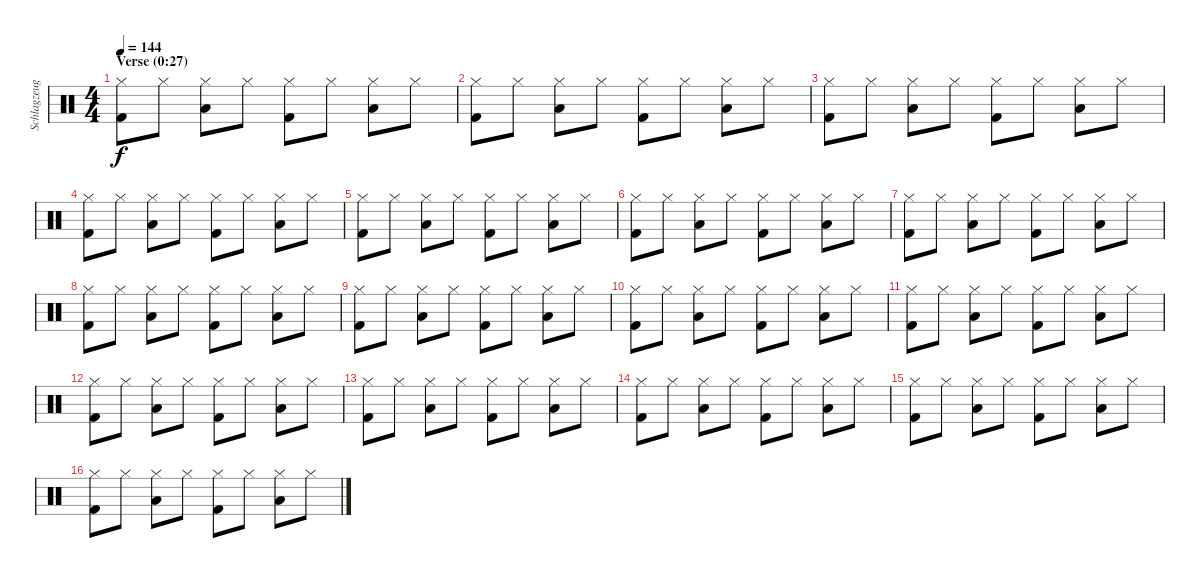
\track ("Schlagzeug" "Schlagzeug") {instrument percussion}
\staff {score}
\articulation defaults
\ts (4 4)
\section ("" "Verse (0:27)")
\tempo 144
\clef neutral
\ks c
("Hi-Hat (closed)" "Kick (hit) 2").8{dy f} "Hi-Hat (closed)".8 ("Hi-Hat (closed)" "Low Tom (hit)").8 "Hi-Hat (closed)".8 ("Hi-Hat (closed)" "Kick (hit) 2").8 "Hi-Hat (closed)".8 ("Hi-Hat (closed)" "Low Tom (hit)").8 "Hi-Hat (closed)".8 |
("Hi-Hat (closed)" "Kick (hit) 2").8 "Hi-Hat (closed)".8 ("Hi-Hat (closed)" "Low Tom (hit)").8 "Hi-Hat (closed)".8 ("Hi-Hat (closed)" "Kick (hit) 2").8 "Hi-Hat (closed)".8 ("Hi-Hat (closed)" "Low Tom (hit)").8 "Hi-Hat (closed)".8 |
("Hi-Hat (closed)" "Kick (hit) 2").8 "Hi-Hat (closed)".8 ("Hi-Hat (closed)" "Low Tom (hit)").8 "Hi-Hat (closed)".8 ("Hi-Hat (closed)" "Kick (hit) 2").8 "Hi-Hat (closed)".8 ("Hi-Hat (closed)" "Low Tom (hit)").8 "Hi-Hat (closed)".8 |
("Hi-Hat (closed)" "Kick (hit) 2").8 "Hi-Hat (closed)".8 ("Hi-Hat (closed)" "Low Tom (hit)").8 "Hi-Hat (closed)".8 ("Hi-Hat (closed)" "Kick (hit) 2").8 "Hi-Hat (closed)".8 ("Hi-Hat (closed)" "Low Tom (hit)").8 "Hi-Hat (closed)".8 |
("Hi-Hat (closed)" "Kick (hit) 2").8 "Hi-Hat (closed)".8 ("Hi-Hat (closed)" "Low Tom (hit)").8 "Hi-Hat (closed)".8 ("Hi-Hat (closed)" "Kick (hit) 2").8 "Hi-Hat (closed)".8 ("Hi-Hat (closed)" "Low Tom (hit)").8 "Hi-Hat (closed)".8 |
("Hi-Hat (closed)" "Kick (hit) 2").8 "Hi-Hat (closed)".8 ("Hi-Hat (closed)" "Low Tom (hit)").8 "Hi-Hat (closed)".8 ("Hi-Hat (closed)" "Kick (hit) 2").8 "Hi-Hat (closed)".8 ("Hi-Hat (closed)" "Low Tom (hit)").8 "Hi-Hat (closed)".8 |
("Hi-Hat (closed)" "Kick (hit) 2").8 "Hi-Hat (closed)".8 ("Hi-Hat (closed)" "Low Tom (hit)").8 "Hi-Hat (closed)".8 ("Hi-Hat (closed)" "Kick (hit) 2").8 "Hi-Hat (closed)".8 ("Hi-Hat (closed)" "Low Tom (hit)").8 "Hi-Hat (closed)".8 |
("Hi-Hat (closed)" "Kick (hit) 2").8 "Hi-Hat (closed)".8 ("Hi-Hat (closed)" "Low Tom (hit)").8 "Hi-Hat (closed)".8 ("Hi-Hat (closed)" "Kick (hit) 2").8 "Hi-Hat (closed)".8 ("Hi-Hat (closed)" "Low Tom (hit)").8 "Hi-Hat (closed)".8 |
("Hi-Hat (closed)" "Kick (hit) 2").8 "Hi-Hat (closed)".8 ("Hi-Hat (closed)" "Low Tom (hit)").8 "Hi-Hat (closed)".8 ("Hi-Hat (closed)" "Kick (hit) 2").8 "Hi-Hat (closed)".8 ("Hi-Hat (closed)" "Low Tom (hit)").8 "Hi-Hat (closed)".8 |
("Hi-Hat (closed)" "Kick (hit) 2").8 "Hi-Hat (closed)".8 ("Hi-Hat (closed)" "Low Tom (hit)").8 "Hi-Hat (closed)".8 ("Hi-Hat (closed)" "Kick (hit) 2").8 "Hi-Hat (closed)".8 ("Hi-Hat (closed)" "Low Tom (hit)").8 "Hi-Hat (closed)".8 |
("Hi-Hat (closed)" "Kick (hit) 2").8 "Hi-Hat (closed)".8 ("Hi-Hat (closed)" "Low Tom (hit)").8 "Hi-Hat (closed)".8 ("Hi-Hat (closed)" "Kick (hit) 2").8 "Hi-Hat (closed)".8 ("Hi-Hat (closed)" "Low Tom (hit)").8 "Hi-Hat (closed)".8 |
("Hi-Hat (closed)" "Kick (hit) 2").8 "Hi-Hat (closed)".8 ("Hi-Hat (closed)" "Low Tom (hit)").8 "Hi-Hat (closed)".8 ("Hi-Hat (closed)" "Kick (hit) 2").8 "Hi-Hat (closed)".8 ("Hi-Hat (closed)" "Low Tom (hit)").8 "Hi-Hat (closed)".8 |
("Hi-Hat (closed)" "Kick (hit) 2").8 "Hi-Hat (closed)".8 ("Hi-Hat (closed)" "Low Tom (hit)").8 "Hi-Hat (closed)".8 ("Hi-Hat (closed)" "Kick (hit) 2").8 "Hi-Hat (closed)".8 ("Hi-Hat (closed)" "Low Tom (hit)").8 "Hi-Hat (closed)".8 |
("Hi-Hat (closed)" "Kick (hit) 2").8 "Hi-Hat (closed)".8 ("Hi-Hat (closed)" "Low Tom (hit)").8 "Hi-Hat (closed)".8 ("Hi-Hat (closed)" "Kick (hit) 2").8 "Hi-Hat (closed)".8 ("Hi-Hat (closed)" "Low Tom (hit)").8 "Hi-Hat (closed)".8 |
("Hi-Hat (closed)" "Kick (hit) 2").8 "Hi-Hat (closed)".8 ("Hi-Hat (closed)" "Low Tom (hit)").8 "Hi-Hat (closed)".8 ("Hi-Hat (closed)" "Kick (hit) 2").8 "Hi-Hat (closed)".8 ("Hi-Hat (closed)" "Low Tom (hit)").8 "Hi-Hat (closed)".8 |
("Hi-Hat (closed)" "Kick (hit) 2").8 "Hi-Hat (closed)".8 ("Hi-Hat (closed)" "Low Tom (hit)").8 "Hi-Hat (closed)".8 ("Hi-Hat (closed)" "Kick (hit) 2").8 "Hi-Hat (closed)".8 ("Hi-Hat (closed)" "Low Tom (hit)").8 "Hi-Hat (closed)".8
